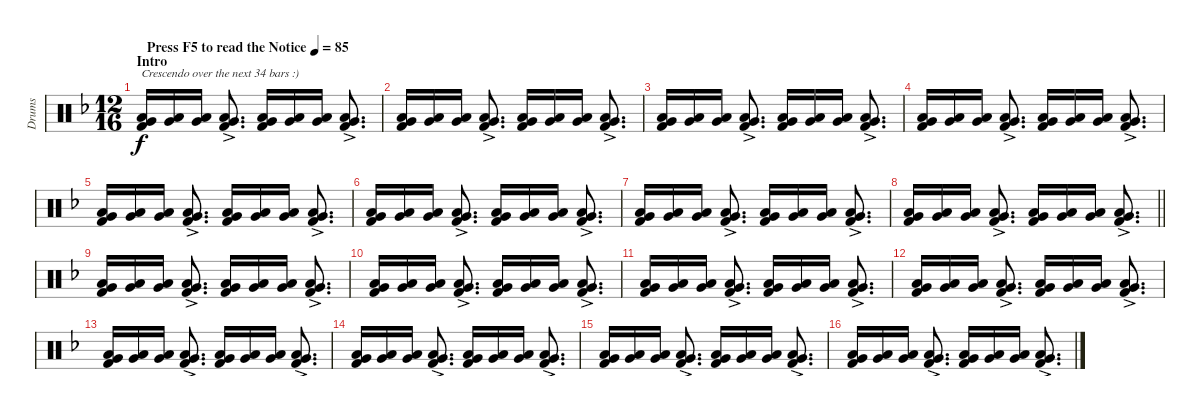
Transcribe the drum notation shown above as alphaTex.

\track ("Drums" "Drums") {instrument percussion}
\staff {score}
\articulation defaults
\ts (12 16)
\section ("" "Intro")
\tempo (85 "Press F5 to read the Notice")
\clef neutral
\ks dminor
("Low Tom (hit)" "Very Low Tom (hit)" "Kick (hit) 2").16{txt "Crescendo over the next 34 bars :)" dy f volume 0} ("Low Tom (hit)" "Very Low Tom (hit)").16 ("Low Tom (hit)" "Very Low Tom (hit)").16 ("Low Tom (hit)"{ac} "Very Low Tom (hit)"{ac} "Kick (hit) 2").8{d} ("Low Tom (hit)" "Very Low Tom (hit)" "Kick (hit) 2").16 ("Low Tom (hit)" "Very Low Tom (hit)").16 ("Low Tom (hit)" "Very Low Tom (hit)").16 ("Low Tom (hit)"{ac} "Very Low Tom (hit)"{ac} "Kick (hit) 2").8{d} |
("Low Tom (hit)" "Very Low Tom (hit)" "Kick (hit) 2").16 ("Low Tom (hit)" "Very Low Tom (hit)").16 ("Low Tom (hit)" "Very Low Tom (hit)").16 ("Low Tom (hit)"{ac} "Very Low Tom (hit)"{ac} "Kick (hit) 2").8{d} ("Low Tom (hit)" "Very Low Tom (hit)" "Kick (hit) 2").16 ("Low Tom (hit)" "Very Low Tom (hit)").16 ("Low Tom (hit)" "Very Low Tom (hit)").16 ("Low Tom (hit)"{ac} "Very Low Tom (hit)"{ac} "Kick (hit) 2").8{d} |
("Low Tom (hit)" "Very Low Tom (hit)" "Kick (hit) 2").16 ("Low Tom (hit)" "Very Low Tom (hit)").16 ("Low Tom (hit)" "Very Low Tom (hit)").16 ("Low Tom (hit)"{ac} "Very Low Tom (hit)"{ac} "Kick (hit) 2").8{d} ("Low Tom (hit)" "Very Low Tom (hit)" "Kick (hit) 2").16 ("Low Tom (hit)" "Very Low Tom (hit)").16 ("Low Tom (hit)" "Very Low Tom (hit)").16 ("Low Tom (hit)"{ac} "Very Low Tom (hit)"{ac} "Kick (hit) 2").8{d} |
("Low Tom (hit)" "Very Low Tom (hit)" "Kick (hit) 2").16 ("Low Tom (hit)" "Very Low Tom (hit)").16 ("Low Tom (hit)" "Very Low Tom (hit)").16 ("Low Tom (hit)"{ac} "Very Low Tom (hit)"{ac} "Kick (hit) 2").8{d} ("Low Tom (hit)" "Very Low Tom (hit)" "Kick (hit) 2").16 ("Low Tom (hit)" "Very Low Tom (hit)").16 ("Low Tom (hit)" "Very Low Tom (hit)").16 ("Low Tom (hit)"{ac} "Very Low Tom (hit)"{ac} "Kick (hit) 2").8{d} |
("Low Tom (hit)" "Very Low Tom (hit)" "Kick (hit) 2").16{volume 3} ("Low Tom (hit)" "Very Low Tom (hit)").16 ("Low Tom (hit)" "Very Low Tom (hit)").16 ("Low Tom (hit)"{ac} "Very Low Tom (hit)"{ac} "Kick (hit) 2").8{d} ("Low Tom (hit)" "Very Low Tom (hit)" "Kick (hit) 2").16 ("Low Tom (hit)" "Very Low Tom (hit)").16 ("Low Tom (hit)" "Very Low Tom (hit)").16 ("Low Tom (hit)"{ac} "Very Low Tom (hit)"{ac} "Kick (hit) 2").8{d} |
("Low Tom (hit)" "Very Low Tom (hit)" "Kick (hit) 2").16 ("Low Tom (hit)" "Very Low Tom (hit)").16 ("Low Tom (hit)" "Very Low Tom (hit)").16 ("Low Tom (hit)"{ac} "Very Low Tom (hit)"{ac} "Kick (hit) 2").8{d} ("Low Tom (hit)" "Very Low Tom (hit)" "Kick (hit) 2").16 ("Low Tom (hit)" "Very Low Tom (hit)").16 ("Low Tom (hit)" "Very Low Tom (hit)").16 ("Low Tom (hit)"{ac} "Very Low Tom (hit)"{ac} "Kick (hit) 2").8{d} |
("Low Tom (hit)" "Very Low Tom (hit)" "Kick (hit) 2").16 ("Low Tom (hit)" "Very Low Tom (hit)").16 ("Low Tom (hit)" "Very Low Tom (hit)").16 ("Low Tom (hit)"{ac} "Very Low Tom (hit)"{ac} "Kick (hit) 2").8{d} ("Low Tom (hit)" "Very Low Tom (hit)" "Kick (hit) 2").16 ("Low Tom (hit)" "Very Low Tom (hit)").16 ("Low Tom (hit)" "Very Low Tom (hit)").16 ("Low Tom (hit)"{ac} "Very Low Tom (hit)"{ac} "Kick (hit) 2").8{d} |
\barLineRight lightlight
("Low Tom (hit)" "Very Low Tom (hit)" "Kick (hit) 2").16 ("Low Tom (hit)" "Very Low Tom (hit)").16 ("Low Tom (hit)" "Very Low Tom (hit)").16 ("Low Tom (hit)"{ac} "Very Low Tom (hit)"{ac} "Kick (hit) 2").8{d} ("Low Tom (hit)" "Very Low Tom (hit)" "Kick (hit) 2").16 ("Low Tom (hit)" "Very Low Tom (hit)").16 ("Low Tom (hit)" "Very Low Tom (hit)").16 ("Low Tom (hit)"{ac} "Very Low Tom (hit)"{ac} "Kick (hit) 2").8{d} |
("Low Tom (hit)" "Very Low Tom (hit)" "Kick (hit) 2").16{volume 4} ("Low Tom (hit)" "Very Low Tom (hit)").16 ("Low Tom (hit)" "Very Low Tom (hit)").16 ("Low Tom (hit)"{ac} "Very Low Tom (hit)"{ac} "Kick (hit) 2").8{d} ("Low Tom (hit)" "Very Low Tom (hit)" "Kick (hit) 2").16 ("Low Tom (hit)" "Very Low Tom (hit)").16 ("Low Tom (hit)" "Very Low Tom (hit)").16 ("Low Tom (hit)"{ac} "Very Low Tom (hit)"{ac} "Kick (hit) 2").8{d} |
("Low Tom (hit)" "Very Low Tom (hit)" "Kick (hit) 2").16 ("Low Tom (hit)" "Very Low Tom (hit)").16 ("Low Tom (hit)" "Very Low Tom (hit)").16 ("Low Tom (hit)"{ac} "Very Low Tom (hit)"{ac} "Kick (hit) 2").8{d} ("Low Tom (hit)" "Very Low Tom (hit)" "Kick (hit) 2").16 ("Low Tom (hit)" "Very Low Tom (hit)").16 ("Low Tom (hit)" "Very Low Tom (hit)").16 ("Low Tom (hit)"{ac} "Very Low Tom (hit)"{ac} "Kick (hit) 2").8{d} |
("Low Tom (hit)" "Very Low Tom (hit)" "Kick (hit) 2").16 ("Low Tom (hit)" "Very Low Tom (hit)").16 ("Low Tom (hit)" "Very Low Tom (hit)").16 ("Low Tom (hit)"{ac} "Very Low Tom (hit)"{ac} "Kick (hit) 2").8{d} ("Low Tom (hit)" "Very Low Tom (hit)" "Kick (hit) 2").16 ("Low Tom (hit)" "Very Low Tom (hit)").16 ("Low Tom (hit)" "Very Low Tom (hit)").16 ("Low Tom (hit)"{ac} "Very Low Tom (hit)"{ac} "Kick (hit) 2").8{d} |
("Low Tom (hit)" "Very Low Tom (hit)" "Kick (hit) 2").16 ("Low Tom (hit)" "Very Low Tom (hit)").16 ("Low Tom (hit)" "Very Low Tom (hit)").16 ("Low Tom (hit)"{ac} "Very Low Tom (hit)"{ac} "Kick (hit) 2").8{d} ("Low Tom (hit)" "Very Low Tom (hit)" "Kick (hit) 2").16 ("Low Tom (hit)" "Very Low Tom (hit)").16 ("Low Tom (hit)" "Very Low Tom (hit)").16 ("Low Tom (hit)"{ac} "Very Low Tom (hit)"{ac} "Kick (hit) 2").8{d} |
("Low Tom (hit)" "Very Low Tom (hit)" "Kick (hit) 2").16 ("Low Tom (hit)" "Very Low Tom (hit)").16 ("Low Tom (hit)" "Very Low Tom (hit)").16 ("Low Tom (hit)"{ac} "Very Low Tom (hit)"{ac} "Kick (hit) 2").8{d} ("Low Tom (hit)" "Very Low Tom (hit)" "Kick (hit) 2").16 ("Low Tom (hit)" "Very Low Tom (hit)").16 ("Low Tom (hit)" "Very Low Tom (hit)").16 ("Low Tom (hit)"{ac} "Very Low Tom (hit)"{ac} "Kick (hit) 2").8{d} |
("Low Tom (hit)" "Very Low Tom (hit)" "Kick (hit) 2").16 ("Low Tom (hit)" "Very Low Tom (hit)").16 ("Low Tom (hit)" "Very Low Tom (hit)").16 ("Low Tom (hit)"{ac} "Very Low Tom (hit)"{ac} "Kick (hit) 2").8{d} ("Low Tom (hit)" "Very Low Tom (hit)" "Kick (hit) 2").16 ("Low Tom (hit)" "Very Low Tom (hit)").16 ("Low Tom (hit)" "Very Low Tom (hit)").16 ("Low Tom (hit)"{ac} "Very Low Tom (hit)"{ac} "Kick (hit) 2").8{d} |
("Low Tom (hit)" "Very Low Tom (hit)" "Kick (hit) 2").16 ("Low Tom (hit)" "Very Low Tom (hit)").16 ("Low Tom (hit)" "Very Low Tom (hit)").16 ("Low Tom (hit)"{ac} "Very Low Tom (hit)"{ac} "Kick (hit) 2").8{d} ("Low Tom (hit)" "Very Low Tom (hit)" "Kick (hit) 2").16 ("Low Tom (hit)" "Very Low Tom (hit)").16 ("Low Tom (hit)" "Very Low Tom (hit)").16 ("Low Tom (hit)"{ac} "Very Low Tom (hit)"{ac} "Kick (hit) 2").8{d} |
("Low Tom (hit)" "Very Low Tom (hit)" "Kick (hit) 2").16 ("Low Tom (hit)" "Very Low Tom (hit)").16 ("Low Tom (hit)" "Very Low Tom (hit)").16 ("Low Tom (hit)"{ac} "Very Low Tom (hit)"{ac} "Kick (hit) 2").8{d} ("Low Tom (hit)" "Very Low Tom (hit)" "Kick (hit) 2").16 ("Low Tom (hit)" "Very Low Tom (hit)").16 ("Low Tom (hit)" "Very Low Tom (hit)").16 ("Low Tom (hit)"{ac} "Very Low Tom (hit)"{ac} "Kick (hit) 2").8{d}
